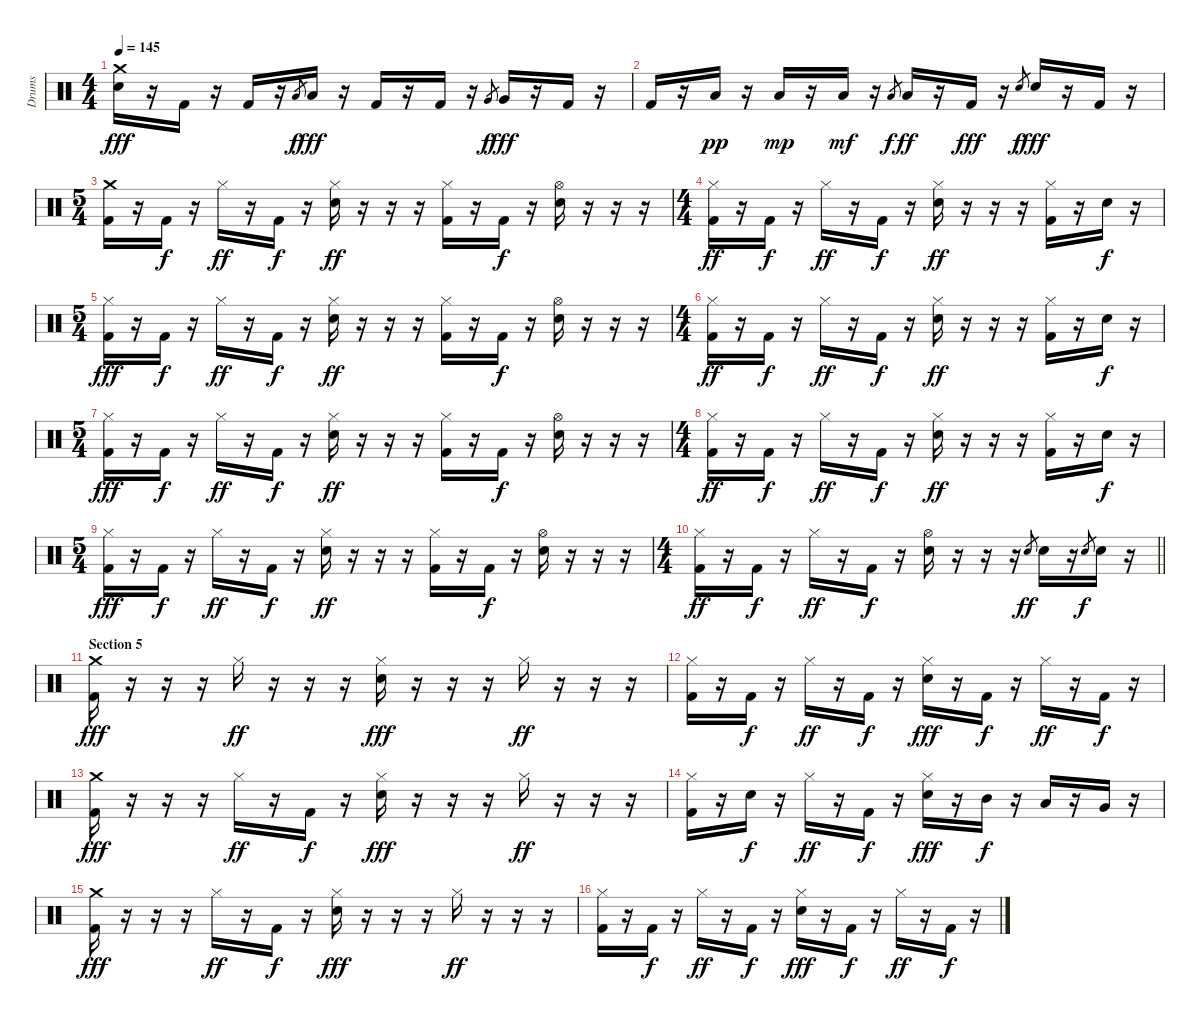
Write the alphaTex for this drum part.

\track ("Drums" "Drums") {instrument percussion}
\staff {score}
\articulation defaults
\ts (4 4)
\tempo 145
\clef neutral
\ks c
("Crash medium (hit)" "Electric Snare (hit)").16{dy fff} r.16 "Kick (hit) 2".16 r.16 "Kick (hit) 2".16 r.16 "Low Tom (hit)".8{gr dy f} "Low Tom (hit)".16{dy fff} r.16 "Kick (hit) 2".16 r.16 "Kick (hit) 2".16 r.16 "Very Low Tom (hit)".8{gr dy f} "Very Low Tom (hit)".16{dy fff} r.16 "Kick (hit) 2".16 r.16 |
"Kick (hit) 2".16 r.16 "Low Tom (hit)".16{dy pp} r.16 "Low Tom (hit)".16{dy mp} r.16 "Low Tom (hit)".16{dy mf} r.16 "Low Tom (hit)".8{gr dy f} "Low Tom (hit)".16{dy ff} r.16 "Kick (hit) 2".16{dy fff} r.16 "Electric Snare (hit)".8{gr dy f} "Electric Snare (hit)".16{dy fff} r.16 "Kick (hit) 2".16 r.16 |
\ts (5 4)
("Crash medium (hit)" "Kick (hit) 2").16 r.16 "Kick (hit) 2".16{dy f} r.16 "Hi-Hat (closed)".16{dy ff} r.16 "Kick (hit) 2".16{dy f} r.16 ("Hi-Hat (closed)" "Electric Snare (hit)").16{dy ff} r.16 r.16 r.16 ("Hi-Hat (closed)" "Kick (hit) 2").16 r.16 "Kick (hit) 2".16{dy f} r.16 ("Hi-Hat (open)" "Electric Snare (hit)").16 r.16 r.16 r.16 |
\ts (4 4)
("Hi-Hat (closed)" "Kick (hit) 2").16{dy ff} r.16 "Kick (hit) 2".16{dy f} r.16 "Hi-Hat (closed)".16{dy ff} r.16 "Kick (hit) 2".16{dy f} r.16 ("Hi-Hat (closed)" "Electric Snare (hit)").16{dy ff} r.16 r.16 r.16 ("Hi-Hat (closed)" "Kick (hit) 2").16 r.16 "Electric Snare (hit)".16{dy f} r.16 |
\ts (5 4)
("Hi-Hat (closed)" "Kick (hit) 2").16{dy fff} r.16 "Kick (hit) 2".16{dy f} r.16 "Hi-Hat (closed)".16{dy ff} r.16 "Kick (hit) 2".16{dy f} r.16 ("Hi-Hat (closed)" "Electric Snare (hit)").16{dy ff} r.16 r.16 r.16 ("Hi-Hat (closed)" "Kick (hit) 2").16 r.16 "Kick (hit) 2".16{dy f} r.16 ("Hi-Hat (open)" "Electric Snare (hit)").16 r.16 r.16 r.16 |
\ts (4 4)
("Hi-Hat (closed)" "Kick (hit) 2").16{dy ff} r.16 "Kick (hit) 2".16{dy f} r.16 "Hi-Hat (closed)".16{dy ff} r.16 "Kick (hit) 2".16{dy f} r.16 ("Hi-Hat (closed)" "Electric Snare (hit)").16{dy ff} r.16 r.16 r.16 ("Hi-Hat (closed)" "Kick (hit) 2").16 r.16 "Electric Snare (hit)".16{dy f} r.16 |
\ts (5 4)
("Hi-Hat (closed)" "Kick (hit) 2").16{dy fff} r.16 "Kick (hit) 2".16{dy f} r.16 "Hi-Hat (closed)".16{dy ff} r.16 "Kick (hit) 2".16{dy f} r.16 ("Hi-Hat (closed)" "Electric Snare (hit)").16{dy ff} r.16 r.16 r.16 ("Hi-Hat (closed)" "Kick (hit) 2").16 r.16 "Kick (hit) 2".16{dy f} r.16 ("Hi-Hat (open)" "Electric Snare (hit)").16 r.16 r.16 r.16 |
\ts (4 4)
("Hi-Hat (closed)" "Kick (hit) 2").16{dy ff} r.16 "Kick (hit) 2".16{dy f} r.16 "Hi-Hat (closed)".16{dy ff} r.16 "Kick (hit) 2".16{dy f} r.16 ("Hi-Hat (closed)" "Electric Snare (hit)").16{dy ff} r.16 r.16 r.16 ("Hi-Hat (closed)" "Kick (hit) 2").16 r.16 "Electric Snare (hit)".16{dy f} r.16 |
\ts (5 4)
("Hi-Hat (closed)" "Kick (hit) 2").16{dy fff} r.16 "Kick (hit) 2".16{dy f} r.16 "Hi-Hat (closed)".16{dy ff} r.16 "Kick (hit) 2".16{dy f} r.16 ("Hi-Hat (closed)" "Electric Snare (hit)").16{dy ff} r.16 r.16 r.16 ("Hi-Hat (closed)" "Kick (hit) 2").16 r.16 "Kick (hit) 2".16{dy f} r.16 ("Hi-Hat (open)" "Electric Snare (hit)").16 r.16 r.16 r.16 |
\ts (4 4)
\barLineRight lightlight
("Hi-Hat (closed)" "Kick (hit) 2").16{dy ff} r.16 "Kick (hit) 2".16{dy f} r.16 "Hi-Hat (closed)".16{dy ff} r.16 "Kick (hit) 2".16{dy f} r.16 ("Hi-Hat (open)" "Electric Snare (hit)").16 r.16 r.16 r.16 "Electric Snare (hit)".8{gr dy ff} "Electric Snare (hit)".16 r.16 "Electric Snare (hit)".8{gr dy f} "Electric Snare (hit)".16 r.16 |
\section ("" "Section 5")
("Crash medium (hit)" "Kick (hit) 2").16{dy fff} r.16 r.16 r.16 "Hi-Hat (closed)".16{dy ff} r.16 r.16 r.16 ("Hi-Hat (closed)" "Electric Snare (hit)").16{dy fff} r.16 r.16 r.16 "Hi-Hat (closed)".16{dy ff} r.16 r.16 r.16 |
("Hi-Hat (closed)" "Kick (hit) 2").16 r.16 "Kick (hit) 2".16{dy f} r.16 "Hi-Hat (closed)".16{dy ff} r.16 "Kick (hit) 2".16{dy f} r.16 ("Hi-Hat (closed)" "Electric Snare (hit)").16{dy fff} r.16 "Kick (hit) 2".16{dy f} r.16 "Hi-Hat (closed)".16{dy ff} r.16 "Kick (hit) 2".16{dy f} r.16 |
("Crash medium (hit)" "Kick (hit) 2").16{dy fff} r.16 r.16 r.16 "Hi-Hat (closed)".16{dy ff} r.16 "Kick (hit) 2".16{dy f} r.16 ("Hi-Hat (closed)" "Electric Snare (hit)").16{dy fff} r.16 r.16 r.16 "Hi-Hat (closed)".16{dy ff} r.16 r.16 r.16 |
("Hi-Hat (closed)" "Kick (hit) 2").16 r.16 "Electric Snare (hit)".16{dy f} r.16 "Hi-Hat (closed)".16{dy ff} r.16 "Kick (hit) 2".16{dy f} r.16 ("Hi-Hat (closed)" "Electric Snare (hit)").16{dy fff} r.16 "Mid Tom (hit)".16{dy f} r.16 "Low Tom (hit)".16 r.16 "Very Low Tom (hit)".16 r.16 |
("Crash medium (hit)" "Kick (hit) 2").16{dy fff} r.16 r.16 r.16 "Hi-Hat (closed)".16{dy ff} r.16 "Kick (hit) 2".16{dy f} r.16 ("Hi-Hat (closed)" "Electric Snare (hit)").16{dy fff} r.16 r.16 r.16 "Hi-Hat (closed)".16{dy ff} r.16 r.16 r.16 |
("Hi-Hat (closed)" "Kick (hit) 2").16 r.16 "Kick (hit) 2".16{dy f} r.16 "Hi-Hat (closed)".16{dy ff} r.16 "Kick (hit) 2".16{dy f} r.16 ("Hi-Hat (closed)" "Electric Snare (hit)").16{dy fff} r.16 "Kick (hit) 2".16{dy f} r.16 "Hi-Hat (closed)".16{dy ff} r.16 "Kick (hit) 2".16{dy f} r.16
